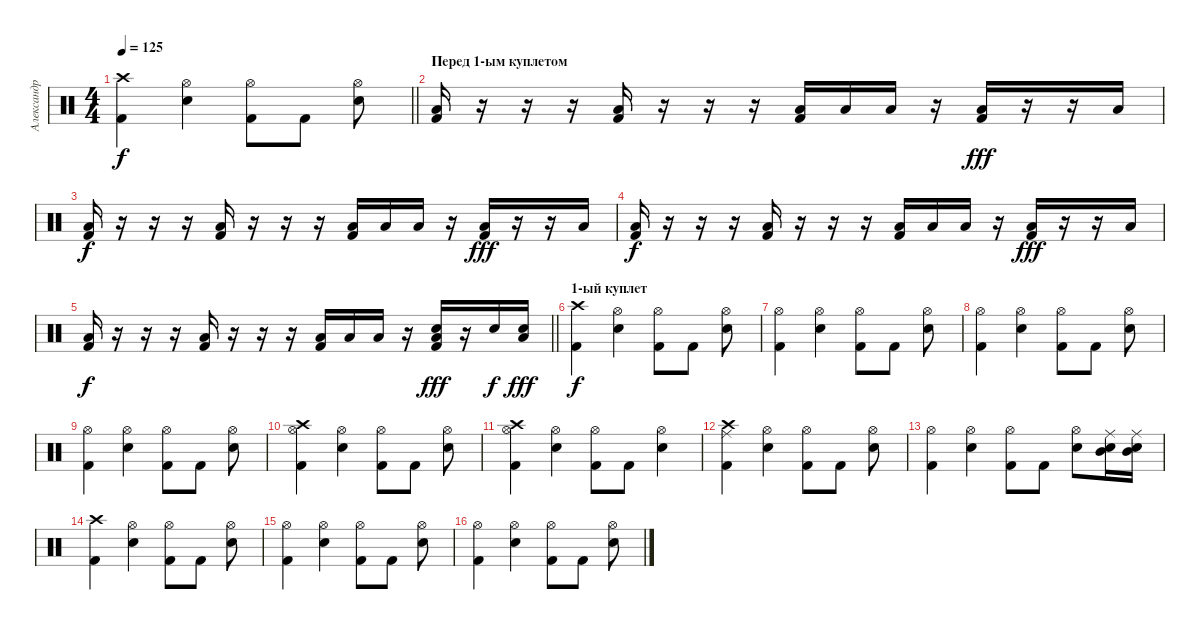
\track ("Александр Манякин" "Александр ") {instrument percussion}
\staff {score}
\articulation defaults
\ts (4 4)
\tempo 125
\clef neutral
\barLineRight lightlight
\ks c
("Crash high (hit)" "Kick (hit) 2").4{dy f} ("Hi-Hat (open)" "Snare (hit) 2").4 ("Hi-Hat (open)" "Kick (hit) 2").8 "Kick (hit) 2".8 ("Hi-Hat (open)" "Snare (hit) 2").8 |
\section ("" "Перед 1-ым куплетом")
("Low Tom (hit)" "Kick (hit) 2").16 r.16 r.16 r.16 ("Low Tom (hit)" "Kick (hit) 2").16 r.16 r.16 r.16 ("Low Tom (hit)" "Kick (hit) 2").16 "Low Tom (hit)".16 "Low Tom (hit)".16 r.16 ("Low Tom (hit)" "Kick (hit) 2").16{dy fff} r.16 r.16 "Low Tom (hit)".16 |
("Low Tom (hit)" "Kick (hit) 2").16{dy f} r.16 r.16 r.16 ("Low Tom (hit)" "Kick (hit) 2").16 r.16 r.16 r.16 ("Low Tom (hit)" "Kick (hit) 2").16 "Low Tom (hit)".16 "Low Tom (hit)".16 r.16 ("Low Tom (hit)" "Kick (hit) 2").16{dy fff} r.16 r.16 "Low Tom (hit)".16 |
("Low Tom (hit)" "Kick (hit) 2").16{dy f} r.16 r.16 r.16 ("Low Tom (hit)" "Kick (hit) 2").16 r.16 r.16 r.16 ("Low Tom (hit)" "Kick (hit) 2").16 "Low Tom (hit)".16 "Low Tom (hit)".16 r.16 ("Low Tom (hit)" "Kick (hit) 2").16{dy fff} r.16 r.16 "Low Tom (hit)".16 |
\barLineRight lightlight
("Low Tom (hit)" "Kick (hit) 2").16{dy f} r.16 r.16 r.16 ("Low Tom (hit)" "Kick (hit) 2").16 r.16 r.16 r.16 ("Low Tom (hit)" "Kick (hit) 2").16 "Low Tom (hit)".16 "Low Tom (hit)".16 r.16 ("Snare (hit) 2" "Low Tom (hit)" "Kick (hit) 2").16{dy fff} r.16 "Snare (hit) 2".16{dy f} ("Snare (hit) 2" "Low Tom (hit)").16{dy fff} |
\section ("" "1-ый куплет")
("Crash high (hit)" "Kick (hit) 2").4{dy f} ("Hi-Hat (open)" "Snare (hit) 2").4 ("Hi-Hat (open)" "Kick (hit) 2").8 "Kick (hit) 2".8 ("Hi-Hat (open)" "Snare (hit) 2").8 |
("Hi-Hat (open)" "Kick (hit) 2").4 ("Hi-Hat (open)" "Snare (hit) 2").4 ("Hi-Hat (open)" "Kick (hit) 2").8 "Kick (hit) 2".8 ("Hi-Hat (open)" "Snare (hit) 2").8 |
("Hi-Hat (open)" "Kick (hit) 2").4 ("Hi-Hat (open)" "Snare (hit) 2").4 ("Hi-Hat (open)" "Kick (hit) 2").8 "Kick (hit) 2".8 ("Hi-Hat (open)" "Snare (hit) 2").8 |
("Hi-Hat (open)" "Kick (hit) 2").4 ("Hi-Hat (open)" "Snare (hit) 2").4 ("Hi-Hat (open)" "Kick (hit) 2").8 "Kick (hit) 2".8 ("Hi-Hat (open)" "Snare (hit) 2").8 |
("Hi-Hat (open)" "Kick (hit) 2" "Crash high (hit)").4 ("Hi-Hat (open)" "Snare (hit) 2").4 ("Hi-Hat (open)" "Kick (hit) 2").8 "Kick (hit) 2".8 ("Hi-Hat (open)" "Snare (hit) 2").8 |
("Hi-Hat (open)" "Kick (hit) 2" "Crash high (hit)").4 ("Hi-Hat (open)" "Snare (hit) 2").4 ("Hi-Hat (open)" "Kick (hit) 2").8 "Kick (hit) 2".8 ("Hi-Hat (open)" "Snare (hit) 2").4 |
("Crash high (hit)" "Kick (hit) 2" "Ride (middle)").4 ("Hi-Hat (open)" "Snare (hit) 2").4 ("Hi-Hat (open)" "Kick (hit) 2").8 "Kick (hit) 2".8 ("Hi-Hat (open)" "Snare (hit) 2").8 |
("Hi-Hat (open)" "Kick (hit) 2").4 ("Hi-Hat (open)" "Snare (hit) 2").4 ("Hi-Hat (open)" "Kick (hit) 2").8 "Kick (hit) 2".8 ("Hi-Hat (open)" "Snare (hit) 2").8 ("Mid Tom (hit)" "Ride (middle)" "Snare (hit) 2").16 ("Mid Tom (hit)" "Ride (middle)" "Snare (hit) 2").16 |
("Crash high (hit)" "Kick (hit) 2").4 ("Hi-Hat (open)" "Snare (hit) 2").4 ("Hi-Hat (open)" "Kick (hit) 2").8 "Kick (hit) 2".8 ("Hi-Hat (open)" "Snare (hit) 2").8 |
("Hi-Hat (open)" "Kick (hit) 2").4 ("Hi-Hat (open)" "Snare (hit) 2").4 ("Hi-Hat (open)" "Kick (hit) 2").8 "Kick (hit) 2".8 ("Hi-Hat (open)" "Snare (hit) 2").8 |
("Hi-Hat (open)" "Kick (hit) 2").4 ("Hi-Hat (open)" "Snare (hit) 2").4 ("Hi-Hat (open)" "Kick (hit) 2").8 "Kick (hit) 2".8 ("Hi-Hat (open)" "Snare (hit) 2").8
